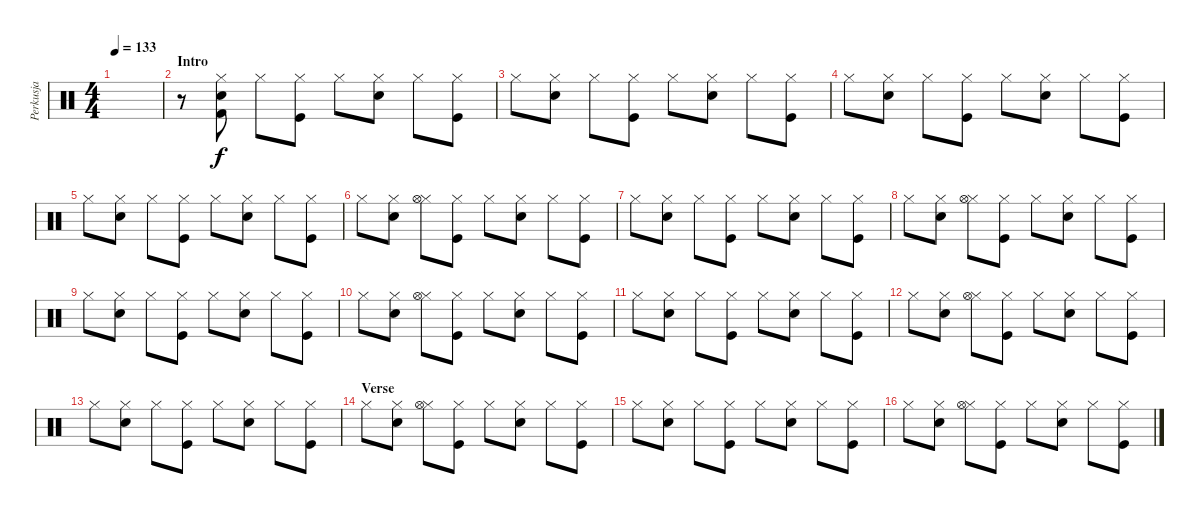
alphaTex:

\track ("Perkusja" "Perkusja") {instrument percussion}
\staff {score}
\articulation defaults
\ts (4 4)
\tempo 133
\clef neutral
\ks c
|
\section ("" "Intro")
r.8 ("Hi-Hat (closed)" "Snare (hit) 2" "Kick (hit) 2").8 "Hi-Hat (closed)".8 ("Hi-Hat (closed)" "Kick (hit)").8 "Hi-Hat (closed)".8 ("Hi-Hat (closed)" "Snare (hit) 2").8 "Hi-Hat (closed)".8 ("Hi-Hat (closed)" "Kick (hit)").8 |
"Hi-Hat (closed)".8 ("Hi-Hat (closed)" "Snare (hit) 2").8 "Hi-Hat (closed)".8 ("Hi-Hat (closed)" "Kick (hit)").8 "Hi-Hat (closed)".8 ("Hi-Hat (closed)" "Snare (hit) 2").8 "Hi-Hat (closed)".8 ("Hi-Hat (closed)" "Kick (hit)").8 |
"Hi-Hat (closed)".8 ("Hi-Hat (closed)" "Snare (hit) 2").8 "Hi-Hat (closed)".8 ("Hi-Hat (closed)" "Kick (hit)").8 "Hi-Hat (closed)".8 ("Hi-Hat (closed)" "Snare (hit) 2").8 "Hi-Hat (closed)".8 ("Hi-Hat (closed)" "Kick (hit)").8 |
"Hi-Hat (closed)".8 ("Hi-Hat (closed)" "Snare (hit) 2").8 "Hi-Hat (closed)".8 ("Hi-Hat (closed)" "Kick (hit)").8 "Hi-Hat (closed)".8 ("Hi-Hat (closed)" "Snare (hit) 2").8 "Hi-Hat (closed)".8 ("Hi-Hat (closed)" "Kick (hit)").8 |
"Hi-Hat (closed)".8 ("Hi-Hat (closed)" "Snare (hit) 2").8 ("Hi-Hat (closed)" "Hi-Hat (open)").8 ("Hi-Hat (closed)" "Kick (hit)").8 "Hi-Hat (closed)".8 ("Hi-Hat (closed)" "Snare (hit) 2").8 "Hi-Hat (closed)".8 ("Hi-Hat (closed)" "Kick (hit)").8 |
"Hi-Hat (closed)".8 ("Hi-Hat (closed)" "Snare (hit) 2").8 "Hi-Hat (closed)".8 ("Hi-Hat (closed)" "Kick (hit)").8 "Hi-Hat (closed)".8 ("Hi-Hat (closed)" "Snare (hit) 2").8 "Hi-Hat (closed)".8 ("Hi-Hat (closed)" "Kick (hit)").8 |
"Hi-Hat (closed)".8 ("Hi-Hat (closed)" "Snare (hit) 2").8 ("Hi-Hat (closed)" "Hi-Hat (open)").8 ("Hi-Hat (closed)" "Kick (hit)").8 "Hi-Hat (closed)".8 ("Hi-Hat (closed)" "Snare (hit) 2").8 "Hi-Hat (closed)".8 ("Hi-Hat (closed)" "Kick (hit)").8 |
"Hi-Hat (closed)".8 ("Hi-Hat (closed)" "Snare (hit) 2").8 "Hi-Hat (closed)".8 ("Hi-Hat (closed)" "Kick (hit)").8 "Hi-Hat (closed)".8 ("Hi-Hat (closed)" "Snare (hit) 2").8 "Hi-Hat (closed)".8 ("Hi-Hat (closed)" "Kick (hit)").8 |
"Hi-Hat (closed)".8 ("Hi-Hat (closed)" "Snare (hit) 2").8 ("Hi-Hat (closed)" "Hi-Hat (open)").8 ("Hi-Hat (closed)" "Kick (hit)").8 "Hi-Hat (closed)".8 ("Hi-Hat (closed)" "Snare (hit) 2").8 "Hi-Hat (closed)".8 ("Hi-Hat (closed)" "Kick (hit)").8 |
"Hi-Hat (closed)".8 ("Hi-Hat (closed)" "Snare (hit) 2").8 "Hi-Hat (closed)".8 ("Hi-Hat (closed)" "Kick (hit)").8 "Hi-Hat (closed)".8 ("Hi-Hat (closed)" "Snare (hit) 2").8 "Hi-Hat (closed)".8 ("Hi-Hat (closed)" "Kick (hit)").8 |
"Hi-Hat (closed)".8 ("Hi-Hat (closed)" "Snare (hit) 2").8 ("Hi-Hat (closed)" "Hi-Hat (open)").8 ("Hi-Hat (closed)" "Kick (hit)").8 "Hi-Hat (closed)".8 ("Hi-Hat (closed)" "Snare (hit) 2").8 "Hi-Hat (closed)".8 ("Hi-Hat (closed)" "Kick (hit)").8 |
"Hi-Hat (closed)".8 ("Hi-Hat (closed)" "Snare (hit) 2").8 "Hi-Hat (closed)".8 ("Hi-Hat (closed)" "Kick (hit)").8 "Hi-Hat (closed)".8 ("Hi-Hat (closed)" "Snare (hit) 2").8 "Hi-Hat (closed)".8 ("Hi-Hat (closed)" "Kick (hit)").8 |
\section ("" "Verse")
"Hi-Hat (closed)".8 ("Hi-Hat (closed)" "Snare (hit) 2").8 ("Hi-Hat (closed)" "Hi-Hat (open)").8 ("Hi-Hat (closed)" "Kick (hit)").8 "Hi-Hat (closed)".8 ("Hi-Hat (closed)" "Snare (hit) 2").8 "Hi-Hat (closed)".8 ("Hi-Hat (closed)" "Kick (hit)").8 |
"Hi-Hat (closed)".8 ("Hi-Hat (closed)" "Snare (hit) 2").8 "Hi-Hat (closed)".8 ("Hi-Hat (closed)" "Kick (hit)").8 "Hi-Hat (closed)".8 ("Hi-Hat (closed)" "Snare (hit) 2").8 "Hi-Hat (closed)".8 ("Hi-Hat (closed)" "Kick (hit)").8 |
"Hi-Hat (closed)".8 ("Hi-Hat (closed)" "Snare (hit) 2").8 ("Hi-Hat (closed)" "Hi-Hat (open)").8 ("Hi-Hat (closed)" "Kick (hit)").8 "Hi-Hat (closed)".8 ("Hi-Hat (closed)" "Snare (hit) 2").8 "Hi-Hat (closed)".8 ("Hi-Hat (closed)" "Kick (hit)").8
